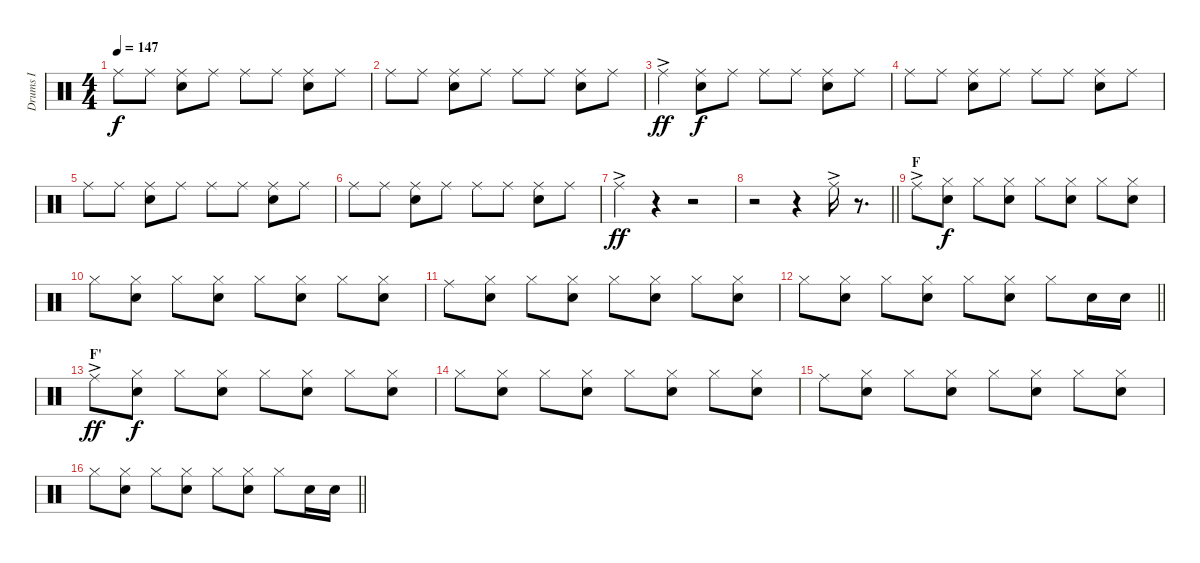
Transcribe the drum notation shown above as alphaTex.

\track ("Drums I" "Drums I") {instrument percussion}
\staff {score}
\articulation defaults
\ts (4 4)
\tempo 147
\clef neutral
\ks c "Ride (middle)".8{dy f} "Ride (middle)".8
("Ride (middle)" "Snare (hit) 2").8 "Ride (middle)".8 "Ride (middle)".8 "Ride (middle)".8 ("Ride (middle)" "Snare (hit) 2").8 "Ride (middle)".8 |
"Ride (middle)".8 "Ride (middle)".8 ("Ride (middle)" "Snare (hit) 2").8 "Ride (middle)".8 "Ride (middle)".8 "Ride (middle)".8 ("Ride (middle)" "Snare (hit) 2").8 "Ride (middle)".8 |
"Ride (middle)"{ac}.4{dy ff} ("Ride (middle)" "Snare (hit) 2").8{dy f} "Ride (middle)".8 "Ride (middle)".8 "Ride (middle)".8 ("Ride (middle)" "Snare (hit) 2").8 "Ride (middle)".8 |
"Ride (middle)".8 "Ride (middle)".8 ("Ride (middle)" "Snare (hit) 2").8 "Ride (middle)".8 "Ride (middle)".8 "Ride (middle)".8 ("Ride (middle)" "Snare (hit) 2").8 "Ride (middle)".8 |
"Ride (middle)".8 "Ride (middle)".8 ("Ride (middle)" "Snare (hit) 2").8 "Ride (middle)".8 "Ride (middle)".8 "Ride (middle)".8 ("Ride (middle)" "Snare (hit) 2").8 "Ride (middle)".8 |
"Ride (middle)".8 "Ride (middle)".8 ("Ride (middle)" "Snare (hit) 2").8 "Ride (middle)".8 "Ride (middle)".8 "Ride (middle)".8 ("Ride (middle)" "Snare (hit) 2").8 "Ride (middle)".8 |
"Ride (middle)"{ac}.4{dy ff} r.4 r.2 |
\barLineRight lightlight
r.2 r.4 "Ride (middle)"{ac}.16 r.8{d} |
\section ("" "F")
"Ride (middle)"{ac}.8 ("Hi-Hat (closed)" "Snare (hit) 2").8{dy f} "Hi-Hat (closed)".8 ("Hi-Hat (closed)" "Snare (hit) 2").8 "Hi-Hat (closed)".8 ("Hi-Hat (closed)" "Snare (hit) 2").8 "Hi-Hat (closed)".8 ("Hi-Hat (closed)" "Snare (hit) 2").8 |
"Hi-Hat (closed)".8 ("Hi-Hat (closed)" "Snare (hit) 2").8 "Hi-Hat (closed)".8 ("Hi-Hat (closed)" "Snare (hit) 2").8 "Hi-Hat (closed)".8 ("Hi-Hat (closed)" "Snare (hit) 2").8 "Hi-Hat (closed)".8 ("Hi-Hat (closed)" "Snare (hit) 2").8 |
"Ride (middle)".8 ("Hi-Hat (closed)" "Snare (hit) 2").8 "Hi-Hat (closed)".8 ("Hi-Hat (closed)" "Snare (hit) 2").8 "Hi-Hat (closed)".8 ("Hi-Hat (closed)" "Snare (hit) 2").8 "Hi-Hat (closed)".8 ("Hi-Hat (closed)" "Snare (hit) 2").8 |
\barLineRight lightlight "Hi-Hat (closed)".8
("Hi-Hat (closed)" "Snare (hit) 2").8 "Hi-Hat (closed)".8 ("Hi-Hat (closed)" "Snare (hit) 2").8 "Hi-Hat (closed)".8 ("Hi-Hat (closed)" "Snare (hit) 2").8 "Hi-Hat (closed)".8 "Snare (hit) 2".16 "Snare (hit) 2".16 |
\section ("" "F'")
"Ride (middle)"{ac}.8{dy ff} ("Hi-Hat (closed)" "Snare (hit) 2").8{dy f} "Hi-Hat (closed)".8 ("Hi-Hat (closed)" "Snare (hit) 2").8 "Hi-Hat (closed)".8 ("Hi-Hat (closed)" "Snare (hit) 2").8 "Hi-Hat (closed)".8 ("Hi-Hat (closed)" "Snare (hit) 2").8 |
"Hi-Hat (closed)".8 ("Hi-Hat (closed)" "Snare (hit) 2").8 "Hi-Hat (closed)".8 ("Hi-Hat (closed)" "Snare (hit) 2").8 "Hi-Hat (closed)".8 ("Hi-Hat (closed)" "Snare (hit) 2").8 "Hi-Hat (closed)".8 ("Hi-Hat (closed)" "Snare (hit) 2").8 |
"Ride (middle)".8 ("Hi-Hat (closed)" "Snare (hit) 2").8 "Hi-Hat (closed)".8 ("Hi-Hat (closed)" "Snare (hit) 2").8 "Hi-Hat (closed)".8 ("Hi-Hat (closed)" "Snare (hit) 2").8 "Hi-Hat (closed)".8 ("Hi-Hat (closed)" "Snare (hit) 2").8 |
\barLineRight lightlight "Hi-Hat (closed)".8
("Hi-Hat (closed)" "Snare (hit) 2").8 "Hi-Hat (closed)".8 ("Hi-Hat (closed)" "Snare (hit) 2").8 "Hi-Hat (closed)".8 ("Hi-Hat (closed)" "Snare (hit) 2").8 "Hi-Hat (closed)".8 "Snare (hit) 2".16 "Snare (hit) 2".16
